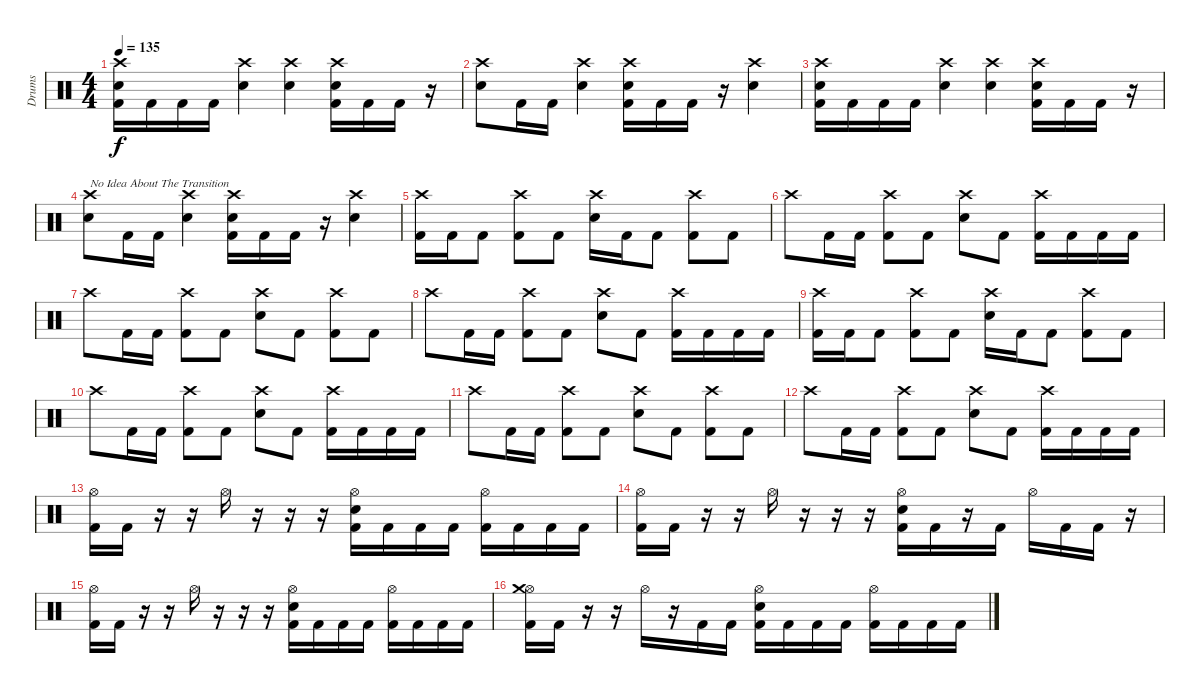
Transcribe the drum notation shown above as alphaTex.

\track ("Drums" "Drums") {instrument percussion}
\staff {score}
\articulation defaults
\ts (4 4)
\tempo 135
\clef neutral
\ks c
("Crash high (hit)" "Kick (hit) 2" "Electric Snare (hit)").16{dy f} "Kick (hit) 2".16 "Kick (hit) 2".16 "Kick (hit) 2".16 ("Crash high (hit)" "Electric Snare (hit)").4 ("Crash high (hit)" "Electric Snare (hit)").4 ("Crash high (hit)" "Kick (hit) 2" "Electric Snare (hit)").16 "Kick (hit) 2".16 "Kick (hit) 2".16 r.16 |
("Crash high (hit)" "Electric Snare (hit)").8 "Kick (hit) 2".16 "Kick (hit) 2".16 ("Crash high (hit)" "Electric Snare (hit)").4 ("Crash high (hit)" "Kick (hit) 2" "Electric Snare (hit)").16 "Kick (hit) 2".16 "Kick (hit) 2".16 r.16 ("Crash high (hit)" "Electric Snare (hit)").4 |
("Crash high (hit)" "Kick (hit) 2" "Electric Snare (hit)").16 "Kick (hit) 2".16 "Kick (hit) 2".16 "Kick (hit) 2".16 ("Crash high (hit)" "Electric Snare (hit)").4 ("Crash high (hit)" "Electric Snare (hit)").4 ("Crash high (hit)" "Kick (hit) 2" "Electric Snare (hit)").16 "Kick (hit) 2".16 "Kick (hit) 2".16 r.16 |
("Crash high (hit)" "Electric Snare (hit)").8{txt "No Idea About The Transition"} "Kick (hit) 2".16 "Kick (hit) 2".16 ("Crash high (hit)" "Electric Snare (hit)").4 ("Crash high (hit)" "Kick (hit) 2" "Electric Snare (hit)").16 "Kick (hit) 2".16 "Kick (hit) 2".16 r.16 ("Crash high (hit)" "Electric Snare (hit)").4 |
("Crash high (hit)" "Kick (hit) 2").16 "Kick (hit) 2".16 "Kick (hit) 2".8 ("Crash high (hit)" "Kick (hit) 2").8 "Kick (hit) 2".8 ("Crash high (hit)" "Electric Snare (hit)").16 "Kick (hit) 2".16 "Kick (hit) 2".8 ("Crash high (hit)" "Kick (hit) 2").8 "Kick (hit) 2".8 |
"Crash high (hit)".8 "Kick (hit) 2".16 "Kick (hit) 2".16 ("Crash high (hit)" "Kick (hit) 2").8 "Kick (hit) 2".8 ("Crash high (hit)" "Electric Snare (hit)").8 "Kick (hit) 2".8 ("Crash high (hit)" "Kick (hit) 2").16 "Kick (hit) 2".16 "Kick (hit) 2".16 "Kick (hit) 2".16 |
"Crash high (hit)".8 "Kick (hit) 2".16 "Kick (hit) 2".16 ("Crash high (hit)" "Kick (hit) 2").8 "Kick (hit) 2".8 ("Crash high (hit)" "Electric Snare (hit)").8 "Kick (hit) 2".8 ("Crash high (hit)" "Kick (hit) 2").8 "Kick (hit) 2".8 |
"Crash high (hit)".8 "Kick (hit) 2".16 "Kick (hit) 2".16 ("Crash high (hit)" "Kick (hit) 2").8 "Kick (hit) 2".8 ("Crash high (hit)" "Electric Snare (hit)").8 "Kick (hit) 2".8 ("Crash high (hit)" "Kick (hit) 2").16 "Kick (hit) 2".16 "Kick (hit) 2".16 "Kick (hit) 2".16 |
("Crash high (hit)" "Kick (hit) 2").16 "Kick (hit) 2".16 "Kick (hit) 2".8 ("Crash high (hit)" "Kick (hit) 2").8 "Kick (hit) 2".8 ("Crash high (hit)" "Electric Snare (hit)").16 "Kick (hit) 2".16 "Kick (hit) 2".8 ("Crash high (hit)" "Kick (hit) 2").8 "Kick (hit) 2".8 |
"Crash high (hit)".8 "Kick (hit) 2".16 "Kick (hit) 2".16 ("Crash high (hit)" "Kick (hit) 2").8 "Kick (hit) 2".8 ("Crash high (hit)" "Electric Snare (hit)").8 "Kick (hit) 2".8 ("Crash high (hit)" "Kick (hit) 2").16 "Kick (hit) 2".16 "Kick (hit) 2".16 "Kick (hit) 2".16 |
"Crash high (hit)".8 "Kick (hit) 2".16 "Kick (hit) 2".16 ("Crash high (hit)" "Kick (hit) 2").8 "Kick (hit) 2".8 ("Crash high (hit)" "Electric Snare (hit)").8 "Kick (hit) 2".8 ("Crash high (hit)" "Kick (hit) 2").8 "Kick (hit) 2".8 |
"Crash high (hit)".8 "Kick (hit) 2".16 "Kick (hit) 2".16 ("Crash high (hit)" "Kick (hit) 2").8 "Kick (hit) 2".8 ("Crash high (hit)" "Electric Snare (hit)").8 "Kick (hit) 2".8 ("Crash high (hit)" "Kick (hit) 2").16 "Kick (hit) 2".16 "Kick (hit) 2".16 "Kick (hit) 2".16 |
("Hi-Hat (open)" "Kick (hit) 2").16 "Kick (hit) 2".16 r.16 r.16 "Hi-Hat (open)".16 r.16 r.16 r.16 ("Hi-Hat (open)" "Kick (hit) 2" "Electric Snare (hit)").16 "Kick (hit) 2".16 "Kick (hit) 2".16 "Kick (hit) 2".16 ("Hi-Hat (open)" "Kick (hit) 2").16 "Kick (hit) 2".16 "Kick (hit) 2".16 "Kick (hit) 2".16 |
("Hi-Hat (open)" "Kick (hit) 2").16 "Kick (hit) 2".16 r.16 r.16 "Hi-Hat (open)".16 r.16 r.16 r.16 ("Hi-Hat (open)" "Kick (hit) 2" "Electric Snare (hit)").16 "Kick (hit) 2".16 r.16 "Kick (hit) 2".16 "Hi-Hat (open)".16 "Kick (hit) 2".16 "Kick (hit) 2".16 r.16 |
("Hi-Hat (open)" "Kick (hit) 2").16 "Kick (hit) 2".16 r.16 r.16 "Hi-Hat (open)".16 r.16 r.16 r.16 ("Hi-Hat (open)" "Kick (hit) 2" "Electric Snare (hit)").16 "Kick (hit) 2".16 "Kick (hit) 2".16 "Kick (hit) 2".16 ("Hi-Hat (open)" "Kick (hit) 2").16 "Kick (hit) 2".16 "Kick (hit) 2".16 "Kick (hit) 2".16 |
("Hi-Hat (open)" "Kick (hit) 2" "Crash medium (hit)").16 "Kick (hit) 2".16 r.16 r.16 "Hi-Hat (open)".16 r.16 "Kick (hit) 2".16 "Kick (hit) 2".16 ("Hi-Hat (open)" "Kick (hit) 2" "Electric Snare (hit)").16 "Kick (hit) 2".16 "Kick (hit) 2".16 "Kick (hit) 2".16 ("Hi-Hat (open)" "Kick (hit) 2").16 "Kick (hit) 2".16 "Kick (hit) 2".16 "Kick (hit) 2".16
